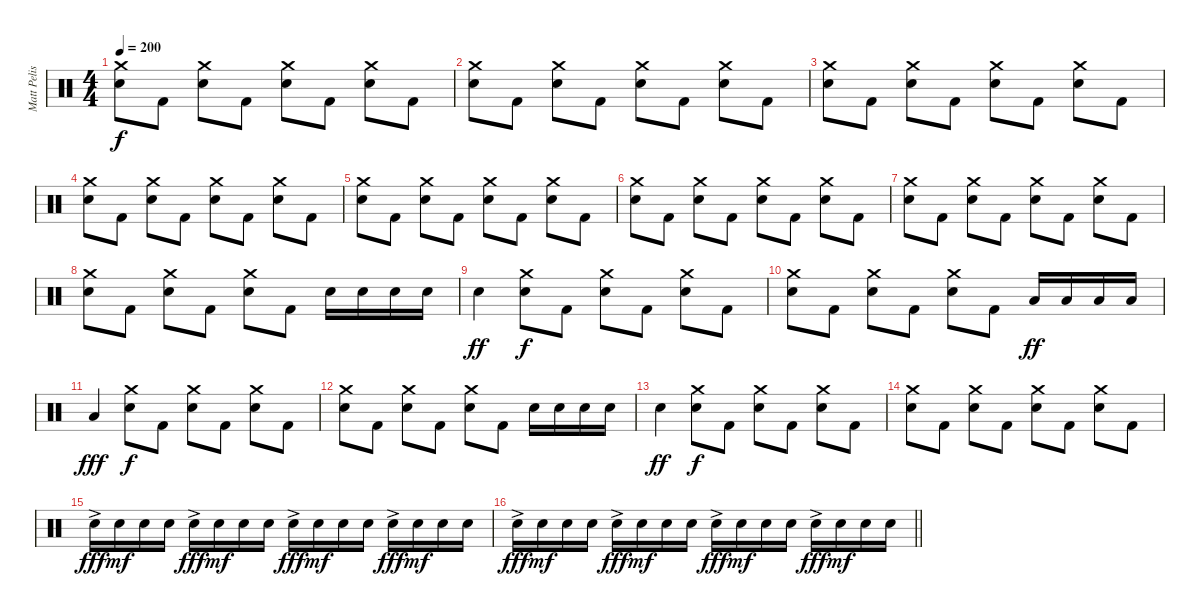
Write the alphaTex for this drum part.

\track ("Matt Pelissier" "Matt Pelis") {instrument percussion}
\staff {score}
\articulation defaults
\ts (4 4)
\tempo 200
\clef neutral
\ks c
("Crash medium (hit)" "Snare (hit) 2").8{dy f} "Kick (hit) 2".8 ("Crash medium (hit)" "Snare (hit) 2").8 "Kick (hit) 2".8 ("Crash medium (hit)" "Snare (hit) 2").8 "Kick (hit) 2".8 ("Crash medium (hit)" "Snare (hit) 2").8 "Kick (hit) 2".8 |
("Crash medium (hit)" "Snare (hit) 2").8 "Kick (hit) 2".8 ("Crash medium (hit)" "Snare (hit) 2").8 "Kick (hit) 2".8 ("Crash medium (hit)" "Snare (hit) 2").8 "Kick (hit) 2".8 ("Crash medium (hit)" "Snare (hit) 2").8 "Kick (hit) 2".8 |
("Crash medium (hit)" "Snare (hit) 2").8 "Kick (hit) 2".8 ("Crash medium (hit)" "Snare (hit) 2").8 "Kick (hit) 2".8 ("Crash medium (hit)" "Snare (hit) 2").8 "Kick (hit) 2".8 ("Crash medium (hit)" "Snare (hit) 2").8 "Kick (hit) 2".8 |
("Crash medium (hit)" "Snare (hit) 2").8 "Kick (hit) 2".8 ("Crash medium (hit)" "Snare (hit) 2").8 "Kick (hit) 2".8 ("Crash medium (hit)" "Snare (hit) 2").8 "Kick (hit) 2".8 ("Crash medium (hit)" "Snare (hit) 2").8 "Kick (hit) 2".8 |
("Crash medium (hit)" "Snare (hit) 2").8 "Kick (hit) 2".8 ("Crash medium (hit)" "Snare (hit) 2").8 "Kick (hit) 2".8 ("Crash medium (hit)" "Snare (hit) 2").8 "Kick (hit) 2".8 ("Crash medium (hit)" "Snare (hit) 2").8 "Kick (hit) 2".8 |
("Crash medium (hit)" "Snare (hit) 2").8 "Kick (hit) 2".8 ("Crash medium (hit)" "Snare (hit) 2").8 "Kick (hit) 2".8 ("Crash medium (hit)" "Snare (hit) 2").8 "Kick (hit) 2".8 ("Crash medium (hit)" "Snare (hit) 2").8 "Kick (hit) 2".8 |
("Crash medium (hit)" "Snare (hit) 2").8 "Kick (hit) 2".8 ("Crash medium (hit)" "Snare (hit) 2").8 "Kick (hit) 2".8 ("Crash medium (hit)" "Snare (hit) 2").8 "Kick (hit) 2".8 ("Crash medium (hit)" "Snare (hit) 2").8 "Kick (hit) 2".8 |
("Crash medium (hit)" "Snare (hit) 2").8 "Kick (hit) 2".8 ("Crash medium (hit)" "Snare (hit) 2").8 "Kick (hit) 2".8 ("Crash medium (hit)" "Snare (hit) 2").8 "Kick (hit) 2".8 "Snare (hit) 2".16 "Snare (hit) 2".16 "Snare (hit) 2".16 "Snare (hit) 2".16 |
"Snare (hit) 2".4{dy ff} ("Crash medium (hit)" "Snare (hit) 2").8{dy f} "Kick (hit) 2".8 ("Crash medium (hit)" "Snare (hit) 2").8 "Kick (hit) 2".8 ("Crash medium (hit)" "Snare (hit) 2").8 "Kick (hit) 2".8 |
("Crash medium (hit)" "Snare (hit) 2").8 "Kick (hit) 2".8 ("Crash medium (hit)" "Snare (hit) 2").8 "Kick (hit) 2".8 ("Crash medium (hit)" "Snare (hit) 2").8 "Kick (hit) 2".8 "Low Tom (hit)".16{dy ff} "Low Tom (hit)".16 "Low Tom (hit)".16 "Low Tom (hit)".16 |
"Low Tom (hit)".4{dy fff} ("Crash medium (hit)" "Snare (hit) 2").8{dy f} "Kick (hit) 2".8 ("Crash medium (hit)" "Snare (hit) 2").8 "Kick (hit) 2".8 ("Crash medium (hit)" "Snare (hit) 2").8 "Kick (hit) 2".8 |
("Crash medium (hit)" "Snare (hit) 2").8 "Kick (hit) 2".8 ("Crash medium (hit)" "Snare (hit) 2").8 "Kick (hit) 2".8 ("Crash medium (hit)" "Snare (hit) 2").8 "Kick (hit) 2".8 "Snare (hit) 2".16 "Snare (hit) 2".16 "Snare (hit) 2".16 "Snare (hit) 2".16 |
"Snare (hit) 2".4{dy ff} ("Crash medium (hit)" "Snare (hit) 2").8{dy f} "Kick (hit) 2".8 ("Crash medium (hit)" "Snare (hit) 2").8 "Kick (hit) 2".8 ("Crash medium (hit)" "Snare (hit) 2").8 "Kick (hit) 2".8 |
("Crash medium (hit)" "Snare (hit) 2").8 "Kick (hit) 2".8 ("Crash medium (hit)" "Snare (hit) 2").8 "Kick (hit) 2".8 ("Crash medium (hit)" "Snare (hit) 2").8 "Kick (hit) 2".8 ("Crash medium (hit)" "Snare (hit) 2").8 "Kick (hit) 2".8 |
"Snare (hit) 2"{ac}.16{dy fff} "Snare (hit) 2".16{dy mf} "Snare (hit) 2".16 "Snare (hit) 2".16 "Snare (hit) 2"{ac}.16{dy fff} "Snare (hit) 2".16{dy mf} "Snare (hit) 2".16 "Snare (hit) 2".16 "Snare (hit) 2"{ac}.16{dy fff} "Snare (hit) 2".16{dy mf} "Snare (hit) 2".16 "Snare (hit) 2".16 "Snare (hit) 2"{ac}.16{dy fff} "Snare (hit) 2".16{dy mf} "Snare (hit) 2".16 "Snare (hit) 2".16 |
\barLineRight lightlight "Snare (hit) 2"{ac}.16{dy fff} "Snare (hit) 2".16{dy mf} "Snare (hit) 2".16 "Snare (hit) 2".16 "Snare (hit) 2"{ac}.16{dy fff} "Snare (hit) 2".16{dy mf} "Snare (hit) 2".16 "Snare (hit) 2".16 "Snare (hit) 2"{ac}.16{dy fff} "Snare (hit) 2".16{dy mf} "Snare (hit) 2".16 "Snare (hit) 2".16 "Snare (hit) 2"{ac}.16{dy fff} "Snare (hit) 2".16{dy mf} "Snare (hit) 2".16 "Snare (hit) 2".16
